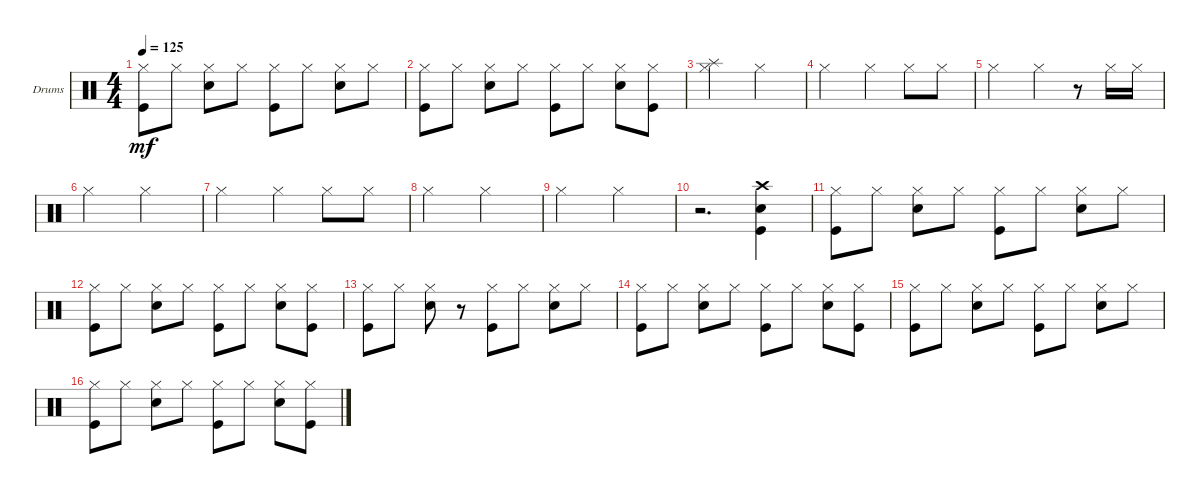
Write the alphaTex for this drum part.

\defaultSystemsLayout 4
\bracketExtendMode groupsimilarinstruments
\firstSystemTrackNameOrientation horizontal
\otherSystemsTrackNameOrientation horizontal
\track ("Drumkit" "Drums") {instrument percussion}
\staff {score}
\articulation defaults
\ts (4 4)
\tempo 125
\clef neutral
\ks c
("Kick (hit)" "Hi-Hat (closed)").8{dy mf} "Hi-Hat (closed)".8 ("Hi-Hat (closed)" "Snare (hit) 2").8 "Hi-Hat (closed)".8 ("Kick (hit)" "Hi-Hat (closed)").8 "Hi-Hat (closed)".8 ("Hi-Hat (closed)" "Snare (hit) 2").8 "Hi-Hat (closed)".8 |
("Kick (hit)" "Hi-Hat (closed)").8 "Hi-Hat (closed)".8 ("Hi-Hat (closed)" "Snare (hit) 2").8 "Hi-Hat (closed)".8 ("Kick (hit)" "Hi-Hat (closed)").8 "Hi-Hat (closed)".8 ("Hi-Hat (closed)" "Snare (hit) 2").8 ("Hi-Hat (closed)" "Kick (hit)").8 |
("Hi-Hat (closed)" "Splash (hit)").2 "Hi-Hat (closed)".2 |
"Hi-Hat (closed)".2 "Hi-Hat (closed)".4 "Hi-Hat (closed)".8 "Hi-Hat (closed)".8 |
"Hi-Hat (closed)".2 "Hi-Hat (closed)".4 r.8 "Hi-Hat (closed)".16 "Hi-Hat (closed)".16 |
"Hi-Hat (closed)".2 "Hi-Hat (closed)".2 |
"Hi-Hat (closed)".2 "Hi-Hat (closed)".4 "Hi-Hat (closed)".8 "Hi-Hat (closed)".8 |
"Hi-Hat (closed)".2 "Hi-Hat (closed)".2 |
"Hi-Hat (closed)".2 "Hi-Hat (closed)".2 |
r.2{d} ("Kick (hit)" "Snare (hit) 2" "Crash high (hit)").4 |
("Kick (hit)" "Hi-Hat (closed)").8 "Hi-Hat (closed)".8 ("Hi-Hat (closed)" "Snare (hit) 2").8 "Hi-Hat (closed)".8 ("Kick (hit)" "Hi-Hat (closed)").8 "Hi-Hat (closed)".8 ("Hi-Hat (closed)" "Snare (hit) 2").8 "Hi-Hat (closed)".8 |
("Kick (hit)" "Hi-Hat (closed)").8 "Hi-Hat (closed)".8 ("Hi-Hat (closed)" "Snare (hit) 2").8 "Hi-Hat (closed)".8 ("Kick (hit)" "Hi-Hat (closed)").8 "Hi-Hat (closed)".8 ("Hi-Hat (closed)" "Snare (hit) 2").8 ("Hi-Hat (closed)" "Kick (hit)").8 |
("Kick (hit)" "Hi-Hat (closed)").8 "Hi-Hat (closed)".8 ("Hi-Hat (closed)" "Snare (hit) 2").8 r.8 ("Kick (hit)" "Hi-Hat (closed)").8 "Hi-Hat (closed)".8 ("Hi-Hat (closed)" "Snare (hit) 2").8 "Hi-Hat (closed)".8 |
("Kick (hit)" "Hi-Hat (closed)").8 "Hi-Hat (closed)".8 ("Hi-Hat (closed)" "Snare (hit) 2").8 "Hi-Hat (closed)".8 ("Kick (hit)" "Hi-Hat (closed)").8 "Hi-Hat (closed)".8 ("Hi-Hat (closed)" "Snare (hit) 2").8 ("Hi-Hat (closed)" "Kick (hit)").8 |
("Kick (hit)" "Hi-Hat (closed)").8 "Hi-Hat (closed)".8 ("Hi-Hat (closed)" "Snare (hit) 2").8 "Hi-Hat (closed)".8 ("Kick (hit)" "Hi-Hat (closed)").8 "Hi-Hat (closed)".8 ("Hi-Hat (closed)" "Snare (hit) 2").8 "Hi-Hat (closed)".8 |
("Kick (hit)" "Hi-Hat (closed)").8 "Hi-Hat (closed)".8 ("Hi-Hat (closed)" "Snare (hit) 2").8 "Hi-Hat (closed)".8 ("Kick (hit)" "Hi-Hat (closed)").8 "Hi-Hat (closed)".8 ("Hi-Hat (closed)" "Snare (hit) 2").8 ("Hi-Hat (closed)" "Kick (hit)").8
